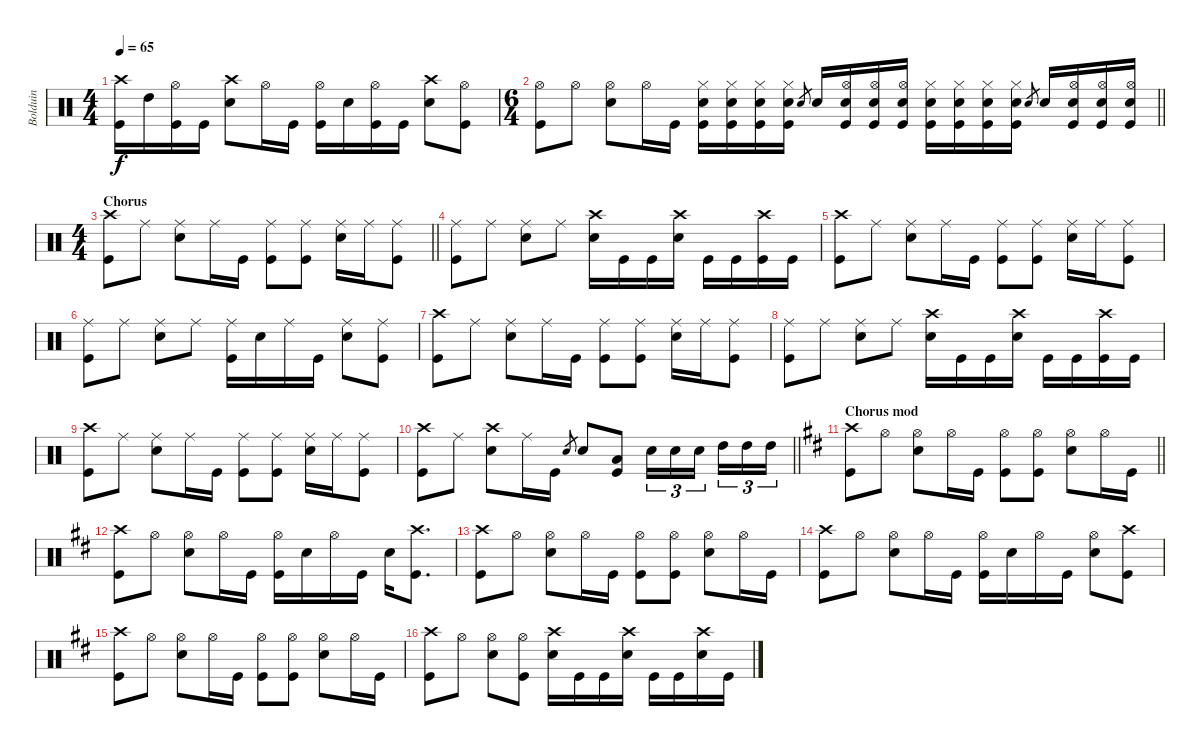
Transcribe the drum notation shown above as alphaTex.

\track ("Bolduin" "Bolduin") {instrument percussion}
\staff {score}
\articulation defaults
\ts (4 4)
\tempo 65
\clef neutral
\ks c
("Kick (hit)" "Crash high (hit)").16{dy f} "High Tom (hit)".16 ("Hi-Hat (open)" "Kick (hit)").16 "Kick (hit)".16 ("Crash high (hit)" "Snare (hit) 2").8 "Hi-Hat (open)".16 "Kick (hit)".16 ("Kick (hit)" "Hi-Hat (open)").16 "Snare (hit) 2".16 ("Hi-Hat (open)" "Kick (hit)").16 "Kick (hit)".16 ("Crash high (hit)" "Snare (hit) 2").8 ("Hi-Hat (open)" "Kick (hit)").8 |
\ts (6 4)
\barLineRight lightlight
("Kick (hit)" "Hi-Hat (open)").8 "Hi-Hat (open)".8 ("Hi-Hat (open)" "Snare (hit) 2").8 "Hi-Hat (open)".16 "Kick (hit)".16 ("Snare (hit) 2" "Kick (hit)" "Hi-Hat (closed)").16 ("Snare (hit) 2" "Kick (hit)" "Hi-Hat (closed)").16 ("Kick (hit)" "Snare (hit) 2" "Hi-Hat (closed)").16 ("Kick (hit)" "Snare (hit) 2" "Hi-Hat (closed)").16 "Snare (hit) 2".8{gr} "Snare (hit) 2".16 ("Kick (hit)" "Snare (hit) 2" "Hi-Hat (open)").16 ("Snare (hit) 2" "Kick (hit)" "Hi-Hat (open)").16 ("Kick (hit)" "Snare (hit) 2" "Hi-Hat (open)").16 ("Snare (hit) 2" "Kick (hit)" "Hi-Hat (closed)").16 ("Snare (hit) 2" "Kick (hit)" "Hi-Hat (closed)").16 ("Kick (hit)" "Snare (hit) 2" "Hi-Hat (closed)").16 ("Kick (hit)" "Snare (hit) 2" "Hi-Hat (closed)").16 "Snare (hit) 2".8{gr} "Snare (hit) 2".16 ("Kick (hit)" "Snare (hit) 2" "Hi-Hat (open)").16 ("Snare (hit) 2" "Kick (hit)" "Hi-Hat (open)").16 ("Kick (hit)" "Snare (hit) 2" "Hi-Hat (open)").16 |
\ts (4 4)
\section ("" "Chorus")
\barLineRight lightlight
("Kick (hit)" "Crash high (hit)").8 "Ride (middle)".8 ("Ride (middle)" "Snare (hit) 2").8 "Ride (middle)".16 "Kick (hit)".16 ("Kick (hit)" "Ride (middle)").8 ("Ride (middle)" "Kick (hit)").8 ("Ride (middle)" "Snare (hit) 2").16 "Ride (middle)".16 ("Ride (middle)" "Kick (hit)").8 |
("Kick (hit)" "Ride (middle)").8 "Ride (middle)".8 ("Ride (middle)" "Snare (hit) 2").8 "Ride (middle)".8 ("Crash high (hit)" "Snare (hit) 2").16 "Kick (hit)".16 "Kick (hit)".16 ("Snare (hit) 2" "Crash high (hit)").16 "Kick (hit)".16 "Kick (hit)".16 ("Crash high (hit)" "Kick (hit)").16 "Kick (hit)".16 |
("Kick (hit)" "Crash high (hit)").8 "Ride (middle)".8 ("Ride (middle)" "Snare (hit) 2").8 "Ride (middle)".16 "Kick (hit)".16 ("Kick (hit)" "Ride (middle)").8 ("Ride (middle)" "Kick (hit)").8 ("Ride (middle)" "Snare (hit) 2").16 "Ride (middle)".16 ("Ride (middle)" "Kick (hit)").8 |
("Kick (hit)" "Ride (middle)").8 "Ride (middle)".8 ("Ride (middle)" "Snare (hit) 2").8 "Ride (middle)".8 ("Kick (hit)" "Ride (middle)").16 "Snare (hit) 2".16 "Ride (middle)".16 "Kick (hit)".16 ("Ride (middle)" "Snare (hit) 2").8 ("Ride (middle)" "Kick (hit)").8 |
("Kick (hit)" "Crash high (hit)").8 "Ride (middle)".8 ("Ride (middle)" "Snare (hit) 2").8 "Ride (middle)".16 "Kick (hit)".16 ("Kick (hit)" "Ride (middle)").8 ("Ride (middle)" "Kick (hit)").8 ("Ride (middle)" "Snare (hit) 2").16 "Ride (middle)".16 ("Ride (middle)" "Kick (hit)").8 |
("Kick (hit)" "Ride (middle)").8 "Ride (middle)".8 ("Ride (middle)" "Snare (hit) 2").8 "Ride (middle)".8 ("Crash high (hit)" "Snare (hit) 2").16 "Kick (hit)".16 "Kick (hit)".16 ("Snare (hit) 2" "Crash high (hit)").16 "Kick (hit)".16 "Kick (hit)".16 ("Crash high (hit)" "Kick (hit)").16 "Kick (hit)".16 |
("Kick (hit)" "Crash high (hit)").8 "Ride (middle)".8 ("Ride (middle)" "Snare (hit) 2").8 "Ride (middle)".16 "Kick (hit)".16 ("Kick (hit)" "Ride (middle)").8 ("Ride (middle)" "Kick (hit)").8 ("Ride (middle)" "Snare (hit) 2").16 "Ride (middle)".16 ("Ride (middle)" "Kick (hit)").8 |
\barLineRight lightlight
("Kick (hit)" "Crash high (hit)").8 "Ride (middle)".8 ("Crash high (hit)" "Snare (hit) 2").8 "Ride (middle)".16 "Kick (hit)".16 "Snare (hit) 2".8{gr} "Snare (hit) 2".8 ("Low Tom (hit)" "Kick (hit)").8 "Snare (hit) 2".16{tu (3 2)} "Snare (hit) 2".16{tu (3 2)} "Snare (hit) 2".16{tu (3 2) beam splitsecondary} "High Tom (hit)".16{tu (3 2)} "High Tom (hit)".16{tu (3 2)} "High Tom (hit)".16{tu (3 2)} |
\section ("" "Chorus mod")
\barLineRight lightlight
\ks d
("Kick (hit)" "Crash high (hit)").8 "Hi-Hat (open)".8 ("Hi-Hat (open)" "Snare (hit) 2").8 "Hi-Hat (open)".16 "Kick (hit)".16 ("Kick (hit)" "Hi-Hat (open)").8 ("Hi-Hat (open)" "Kick (hit)").8 ("Hi-Hat (open)" "Snare (hit) 2").8 "Hi-Hat (open)".16 "Kick (hit)".16 |
("Kick (hit)" "Crash high (hit)").8 "Hi-Hat (open)".8 ("Hi-Hat (open)" "Snare (hit) 2").8 "Hi-Hat (open)".16 "Kick (hit)".16 ("Kick (hit)" "Hi-Hat (open)").16 "Snare (hit) 2".16 "Hi-Hat (open)".16 "Kick (hit)".16 "Snare (hit) 2".16 ("Kick (hit)" "Crash high (hit)").8{d} |
("Kick (hit)" "Crash high (hit)").8 "Hi-Hat (open)".8 ("Hi-Hat (open)" "Snare (hit) 2").8 "Hi-Hat (open)".16 "Kick (hit)".16 ("Kick (hit)" "Hi-Hat (open)").8 ("Hi-Hat (open)" "Kick (hit)").8 ("Hi-Hat (open)" "Snare (hit) 2").8 "Hi-Hat (open)".16 "Kick (hit)".16 |
("Kick (hit)" "Crash high (hit)").8 "Hi-Hat (open)".8 ("Hi-Hat (open)" "Snare (hit) 2").8 "Hi-Hat (open)".16 "Kick (hit)".16 ("Hi-Hat (open)" "Kick (hit)").16 "Snare (hit) 2".16 "Hi-Hat (open)".16 "Kick (hit)".16 ("Hi-Hat (open)" "Snare (hit) 2").8 ("Crash high (hit)" "Kick (hit)").8 |
("Kick (hit)" "Crash high (hit)").8 "Hi-Hat (open)".8 ("Hi-Hat (open)" "Snare (hit) 2").8 "Hi-Hat (open)".16 "Kick (hit)".16 ("Kick (hit)" "Hi-Hat (open)").8 ("Hi-Hat (open)" "Kick (hit)").8 ("Hi-Hat (open)" "Snare (hit) 2").8 "Hi-Hat (open)".16 "Kick (hit)".16 |
("Kick (hit)" "Crash high (hit)").8 "Hi-Hat (open)".8 ("Hi-Hat (open)" "Snare (hit) 2").8 ("Hi-Hat (open)" "Kick (hit)").8 ("Crash high (hit)" "Snare (hit) 2").16 "Kick (hit)".16 "Kick (hit)".16 ("Snare (hit) 2" "Crash high (hit)").16 "Kick (hit)".16 "Kick (hit)".16 ("Snare (hit) 2" "Crash high (hit)").16 "Kick (hit)".16
